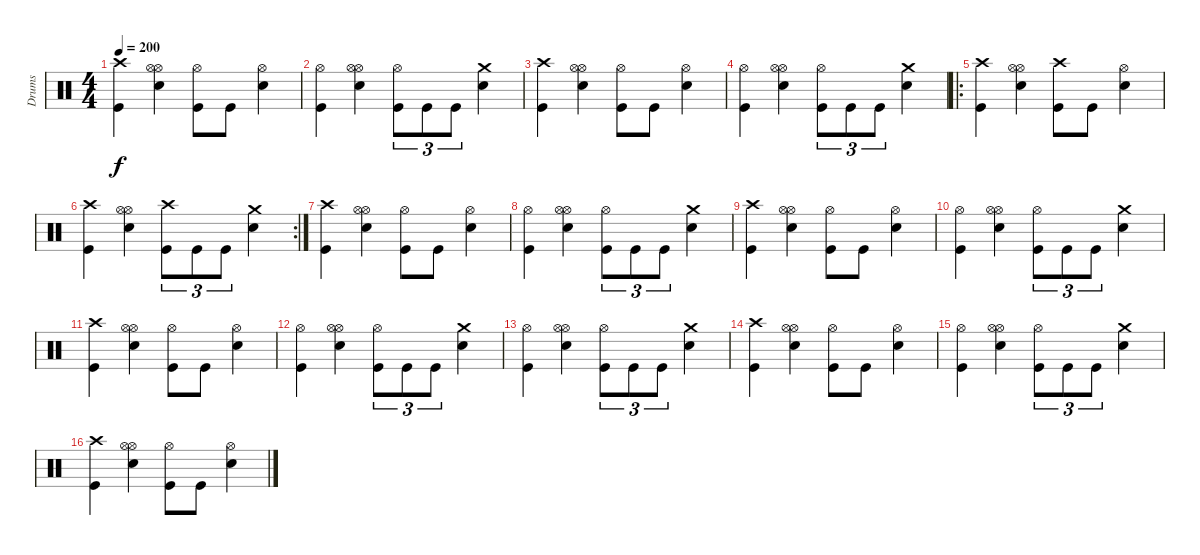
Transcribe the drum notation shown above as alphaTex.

\track ("Drums" "Drums") {instrument percussion}
\staff {score}
\articulation defaults
\ts (4 4)
\tempo 200
\clef neutral
\ks c
("Crash high (hit)" "Kick (hit)").4{dy f} ("Hi-Hat (open)" "Snare (hit) 2" "Hi-Hat (open)").4 ("Hi-Hat (open)" "Kick (hit)").8 "Kick (hit)".8 ("Hi-Hat (open)" "Snare (hit) 2").4 |
("Hi-Hat (open)" "Kick (hit)").4 ("Hi-Hat (open)" "Snare (hit) 2" "Hi-Hat (open)").4 ("Hi-Hat (open)" "Kick (hit)").8{tu (3 2)} "Kick (hit)".8{tu (3 2)} "Kick (hit)".8{tu (3 2)} ("Crash medium (hit)" "Snare (hit) 2").4 |
("Crash high (hit)" "Kick (hit)").4 ("Hi-Hat (open)" "Snare (hit) 2" "Hi-Hat (open)").4 ("Hi-Hat (open)" "Kick (hit)").8 "Kick (hit)".8 ("Hi-Hat (open)" "Snare (hit) 2").4 |
("Hi-Hat (open)" "Kick (hit)").4 ("Hi-Hat (open)" "Snare (hit) 2" "Hi-Hat (open)").4 ("Hi-Hat (open)" "Kick (hit)").8{tu (3 2)} "Kick (hit)".8{tu (3 2)} "Kick (hit)".8{tu (3 2)} ("Crash medium (hit)" "Snare (hit) 2").4 |
\ro
("Crash high (hit)" "Kick (hit)").4 ("Hi-Hat (open)" "Snare (hit) 2" "Hi-Hat (open)").4 ("Crash high (hit)" "Kick (hit)").8 "Kick (hit)".8 ("Hi-Hat (open)" "Snare (hit) 2").4 |
\rc 2
("Crash high (hit)" "Kick (hit)").4 ("Hi-Hat (open)" "Snare (hit) 2" "Hi-Hat (open)").4 ("Crash high (hit)" "Kick (hit)").8{tu (3 2)} "Kick (hit)".8{tu (3 2)} "Kick (hit)".8{tu (3 2)} ("Crash medium (hit)" "Snare (hit) 2").4 |
("Crash high (hit)" "Kick (hit)").4 ("Hi-Hat (open)" "Snare (hit) 2" "Hi-Hat (open)").4 ("Hi-Hat (open)" "Kick (hit)").8 "Kick (hit)".8 ("Hi-Hat (open)" "Snare (hit) 2").4 |
("Hi-Hat (open)" "Kick (hit)").4 ("Hi-Hat (open)" "Snare (hit) 2" "Hi-Hat (open)").4 ("Hi-Hat (open)" "Kick (hit)").8{tu (3 2)} "Kick (hit)".8{tu (3 2)} "Kick (hit)".8{tu (3 2)} ("Crash medium (hit)" "Snare (hit) 2").4 |
("Crash high (hit)" "Kick (hit)").4 ("Hi-Hat (open)" "Snare (hit) 2" "Hi-Hat (open)").4 ("Hi-Hat (open)" "Kick (hit)").8 "Kick (hit)".8 ("Hi-Hat (open)" "Snare (hit) 2").4 |
("Hi-Hat (open)" "Kick (hit)").4 ("Hi-Hat (open)" "Snare (hit) 2" "Hi-Hat (open)").4 ("Hi-Hat (open)" "Kick (hit)").8{tu (3 2)} "Kick (hit)".8{tu (3 2)} "Kick (hit)".8{tu (3 2)} ("Crash medium (hit)" "Snare (hit) 2").4 |
("Crash high (hit)" "Kick (hit)").4 ("Hi-Hat (open)" "Snare (hit) 2" "Hi-Hat (open)").4 ("Hi-Hat (open)" "Kick (hit)").8 "Kick (hit)".8 ("Hi-Hat (open)" "Snare (hit) 2").4 |
("Hi-Hat (open)" "Kick (hit)").4 ("Hi-Hat (open)" "Snare (hit) 2" "Hi-Hat (open)").4 ("Hi-Hat (open)" "Kick (hit)").8{tu (3 2)} "Kick (hit)".8{tu (3 2)} "Kick (hit)".8{tu (3 2)} ("Crash medium (hit)" "Snare (hit) 2").4 |
("Hi-Hat (open)" "Kick (hit)").4 ("Hi-Hat (open)" "Snare (hit) 2" "Hi-Hat (open)").4 ("Hi-Hat (open)" "Kick (hit)").8{tu (3 2)} "Kick (hit)".8{tu (3 2)} "Kick (hit)".8{tu (3 2)} ("Crash medium (hit)" "Snare (hit) 2").4 |
("Crash high (hit)" "Kick (hit)").4 ("Hi-Hat (open)" "Snare (hit) 2" "Hi-Hat (open)").4 ("Hi-Hat (open)" "Kick (hit)").8 "Kick (hit)".8 ("Hi-Hat (open)" "Snare (hit) 2").4 |
("Hi-Hat (open)" "Kick (hit)").4 ("Hi-Hat (open)" "Snare (hit) 2" "Hi-Hat (open)").4 ("Hi-Hat (open)" "Kick (hit)").8{tu (3 2)} "Kick (hit)".8{tu (3 2)} "Kick (hit)".8{tu (3 2)} ("Crash medium (hit)" "Snare (hit) 2").4 |
("Crash high (hit)" "Kick (hit)").4 ("Hi-Hat (open)" "Snare (hit) 2" "Hi-Hat (open)").4 ("Hi-Hat (open)" "Kick (hit)").8 "Kick (hit)".8 ("Hi-Hat (open)" "Snare (hit) 2").4
